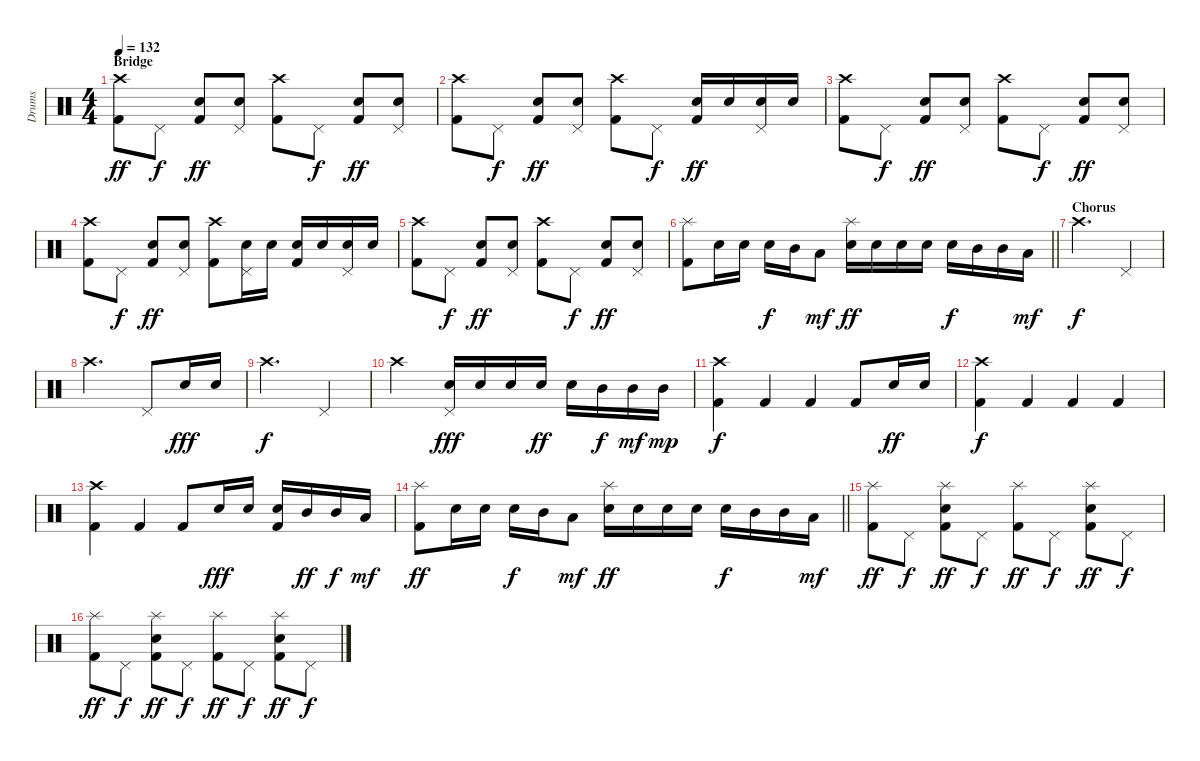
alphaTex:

\track ("Drums" "Drums") {instrument percussion}
\staff {score}
\articulation defaults
\ts (4 4)
\section ("" "Bridge")
\tempo 132
\clef neutral
\ks c
("Crash high (hit)" "Kick (hit) 2").8{dy ff} "Pedal Hi-Hat (hit)".8{dy f} ("Snare (hit) 2" "Kick (hit) 2").8{dy ff} ("Pedal Hi-Hat (hit)" "Snare (hit) 2").8 ("Crash high (hit)" "Kick (hit) 2").8 "Pedal Hi-Hat (hit)".8{dy f} ("Snare (hit) 2" "Kick (hit) 2").8{dy ff} ("Pedal Hi-Hat (hit)" "Snare (hit) 2").8 |
("Crash high (hit)" "Kick (hit) 2").8 "Pedal Hi-Hat (hit)".8{dy f} ("Snare (hit) 2" "Kick (hit) 2").8{dy ff} ("Pedal Hi-Hat (hit)" "Snare (hit) 2").8 ("Crash high (hit)" "Kick (hit) 2").8 "Pedal Hi-Hat (hit)".8{dy f} ("Snare (hit) 2" "Kick (hit) 2").16{dy ff} "Snare (hit) 2".16 ("Pedal Hi-Hat (hit)" "Snare (hit) 2").16 "Snare (hit) 2".16 |
("Crash high (hit)" "Kick (hit) 2").8 "Pedal Hi-Hat (hit)".8{dy f} ("Snare (hit) 2" "Kick (hit) 2").8{dy ff} ("Pedal Hi-Hat (hit)" "Snare (hit) 2").8 ("Crash high (hit)" "Kick (hit) 2").8 "Pedal Hi-Hat (hit)".8{dy f} ("Snare (hit) 2" "Kick (hit) 2").8{dy ff} ("Pedal Hi-Hat (hit)" "Snare (hit) 2").8 |
("Crash high (hit)" "Kick (hit) 2").8 "Pedal Hi-Hat (hit)".8{dy f} ("Snare (hit) 2" "Kick (hit) 2").8{dy ff} ("Pedal Hi-Hat (hit)" "Snare (hit) 2").8 ("Crash high (hit)" "Kick (hit) 2").8 ("Pedal Hi-Hat (hit)" "Snare (hit) 2").16 "Snare (hit) 2".16 ("Snare (hit) 2" "Kick (hit) 2").16 "Snare (hit) 2".16 ("Pedal Hi-Hat (hit)" "Snare (hit) 2").16 "Snare (hit) 2".16 |
("Crash high (hit)" "Kick (hit) 2").8 "Pedal Hi-Hat (hit)".8{dy f} ("Snare (hit) 2" "Kick (hit) 2").8{dy ff} ("Pedal Hi-Hat (hit)" "Snare (hit) 2").8 ("Crash high (hit)" "Kick (hit) 2").8 "Pedal Hi-Hat (hit)".8{dy f} ("Snare (hit) 2" "Kick (hit) 2").8{dy ff} ("Pedal Hi-Hat (hit)" "Snare (hit) 2").8 |
\barLineRight lightlight
("Splash (hit)" "Kick (hit) 2").8 "Snare (hit) 2".16 "Snare (hit) 2".16 "Snare (hit) 2".16{dy f} "Mid Tom (hit)".16 "Low Tom (hit)".8{dy mf} ("Splash (hit)" "Snare (hit) 2").16{dy ff} "Snare (hit) 2".16 "Snare (hit) 2".16 "Snare (hit) 2".16 "Snare (hit) 2".16{dy f} "Mid Tom (hit)".16 "Mid Tom (hit)".16 "Low Tom (hit)".16{dy mf} |
\section ("" "Chorus")
"Crash high (hit)".2{d dy f} "Pedal Hi-Hat (hit)".4 |
"Crash high (hit)".2{d} "Pedal Hi-Hat (hit)".8 "Snare (hit) 2".16{dy fff} "Snare (hit) 2".16 |
"Crash high (hit)".2{d dy f} "Pedal Hi-Hat (hit)".4 |
"Crash high (hit)".2 ("Pedal Hi-Hat (hit)" "Electric Snare (hit)").16{dy fff} "Electric Snare (hit)".16 "Electric Snare (hit)".16 "Snare (hit) 2".16{dy ff} "Snare (hit) 2".16 "Mid Tom (hit)".16{dy f} "Mid Tom (hit)".16{dy mf} "Mid Tom (hit)".16{dy mp} |
("Crash high (hit)" "Kick (hit) 2").4{dy f} "Kick (hit) 2".4 "Kick (hit) 2".4 "Kick (hit) 2".8 "Snare (hit) 2".16{dy ff} "Snare (hit) 2".16 |
("Crash high (hit)" "Kick (hit) 2").4{dy f} "Kick (hit) 2".4 "Kick (hit) 2".4 "Kick (hit) 2".4 |
("Crash high (hit)" "Kick (hit) 2").4 "Kick (hit) 2".4 "Kick (hit) 2".8 "Snare (hit) 2".16{dy fff} "Snare (hit) 2".16 ("Snare (hit) 2" "Kick (hit) 2").16 "Mid Tom (hit)".16{dy ff} "Mid Tom (hit)".16{dy f} "Low Tom (hit)".16{dy mf} |
\barLineRight lightlight
("Splash (hit)" "Kick (hit) 2").8{dy ff} "Snare (hit) 2".16 "Snare (hit) 2".16 "Snare (hit) 2".16{dy f} "Mid Tom (hit)".16 "Low Tom (hit)".8{dy mf} ("Splash (hit)" "Snare (hit) 2").16{dy ff} "Snare (hit) 2".16 "Snare (hit) 2".16 "Snare (hit) 2".16 "Snare (hit) 2".16{dy f} "Mid Tom (hit)".16 "Mid Tom (hit)".16 "Low Tom (hit)".16{dy mf} |
("Splash (hit)" "Kick (hit) 2").8{dy ff} "Pedal Hi-Hat (hit)".8{dy f} ("Splash (hit)" "Snare (hit) 2" "Kick (hit) 2").8{dy ff} "Pedal Hi-Hat (hit)".8{dy f} ("Splash (hit)" "Kick (hit) 2").8{dy ff} "Pedal Hi-Hat (hit)".8{dy f} ("Splash (hit)" "Snare (hit) 2" "Kick (hit) 2").8{dy ff} "Pedal Hi-Hat (hit)".8{dy f} |
("Splash (hit)" "Kick (hit) 2").8{dy ff} "Pedal Hi-Hat (hit)".8{dy f} ("Splash (hit)" "Snare (hit) 2" "Kick (hit) 2").8{dy ff} "Pedal Hi-Hat (hit)".8{dy f} ("Splash (hit)" "Kick (hit) 2").8{dy ff} "Pedal Hi-Hat (hit)".8{dy f} ("Splash (hit)" "Snare (hit) 2" "Kick (hit) 2").8{dy ff} "Pedal Hi-Hat (hit)".8{dy f}
